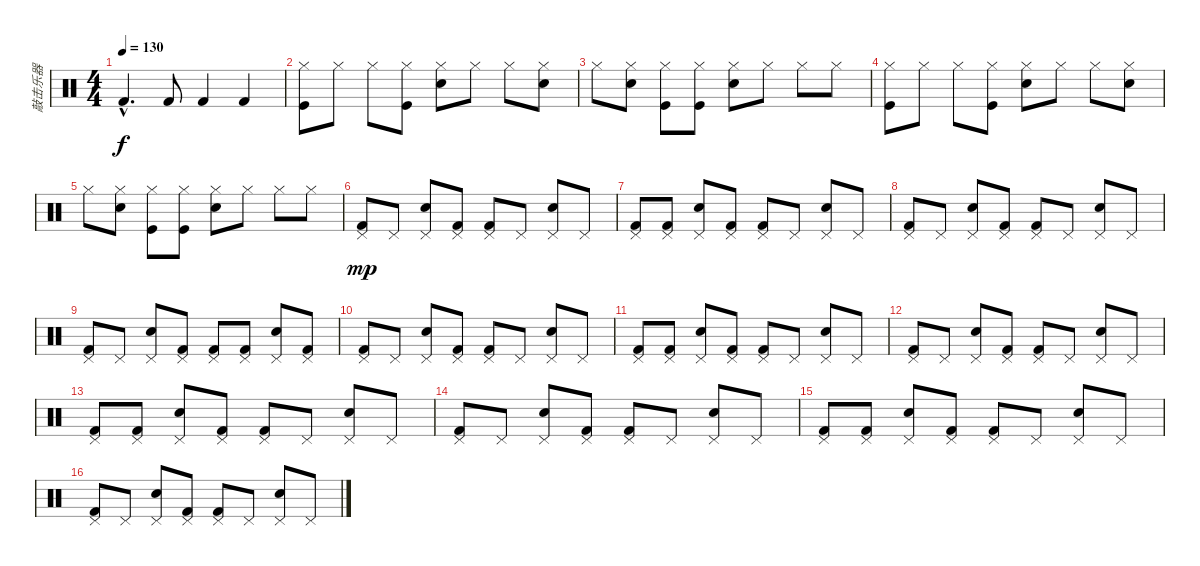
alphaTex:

\track ("敲击乐器" "敲击乐器") {instrument percussion}
\staff {score}
\articulation defaults
\ts (4 4)
\tempo 130
\clef neutral
\ks c "Kick (hit) 2"{hac}.4{d dy f} "Kick (hit) 2".8 "Kick (hit) 2".4 "Kick (hit) 2".4
|
("Hi-Hat (closed)" "Kick (hit)").8 "Hi-Hat (closed)".8 "Hi-Hat (closed)".8 ("Hi-Hat (closed)" "Kick (hit)").8 ("Hi-Hat (closed)" "Electric Snare (hit)").8 "Hi-Hat (closed)".8 "Hi-Hat (closed)".8 ("Hi-Hat (closed)" "Electric Snare (hit)").8 |
"Hi-Hat (closed)".8 ("Hi-Hat (closed)" "Electric Snare (hit)").8 ("Hi-Hat (closed)" "Kick (hit)").8 ("Hi-Hat (closed)" "Kick (hit)").8 ("Hi-Hat (closed)" "Electric Snare (hit)").8 "Hi-Hat (closed)".8 "Hi-Hat (closed)".8 "Hi-Hat (closed)".8 |
("Hi-Hat (closed)" "Kick (hit)").8 "Hi-Hat (closed)".8 "Hi-Hat (closed)".8 ("Hi-Hat (closed)" "Kick (hit)").8 ("Hi-Hat (closed)" "Electric Snare (hit)").8 "Hi-Hat (closed)".8 "Hi-Hat (closed)".8 ("Hi-Hat (closed)" "Electric Snare (hit)").8 |
"Hi-Hat (closed)".8 ("Hi-Hat (closed)" "Electric Snare (hit)").8 ("Hi-Hat (closed)" "Kick (hit)").8 ("Hi-Hat (closed)" "Kick (hit)").8 ("Hi-Hat (closed)" "Electric Snare (hit)").8 "Hi-Hat (closed)".8 "Hi-Hat (closed)".8 "Hi-Hat (closed)".8 |
("Pedal Hi-Hat (hit)" "Kick (hit) 2").8{dy mp} "Pedal Hi-Hat (hit)".8 ("Pedal Hi-Hat (hit)" "Electric Snare (hit)").8 ("Pedal Hi-Hat (hit)" "Kick (hit) 2").8 ("Pedal Hi-Hat (hit)" "Kick (hit) 2").8 "Pedal Hi-Hat (hit)".8 ("Pedal Hi-Hat (hit)" "Electric Snare (hit)").8 "Pedal Hi-Hat (hit)".8 |
("Pedal Hi-Hat (hit)" "Kick (hit) 2").8 ("Pedal Hi-Hat (hit)" "Kick (hit) 2").8 ("Pedal Hi-Hat (hit)" "Electric Snare (hit)").8 ("Pedal Hi-Hat (hit)" "Kick (hit) 2").8 ("Pedal Hi-Hat (hit)" "Kick (hit) 2").8 "Pedal Hi-Hat (hit)".8 ("Pedal Hi-Hat (hit)" "Electric Snare (hit)").8 "Pedal Hi-Hat (hit)".8 |
("Pedal Hi-Hat (hit)" "Kick (hit) 2").8 "Pedal Hi-Hat (hit)".8 ("Pedal Hi-Hat (hit)" "Electric Snare (hit)").8 ("Pedal Hi-Hat (hit)" "Kick (hit) 2").8 ("Pedal Hi-Hat (hit)" "Kick (hit) 2").8 "Pedal Hi-Hat (hit)".8 ("Pedal Hi-Hat (hit)" "Electric Snare (hit)").8 "Pedal Hi-Hat (hit)".8 |
("Pedal Hi-Hat (hit)" "Kick (hit) 2").8 "Pedal Hi-Hat (hit)".8 ("Pedal Hi-Hat (hit)" "Electric Snare (hit)").8 ("Pedal Hi-Hat (hit)" "Kick (hit) 2").8 ("Pedal Hi-Hat (hit)" "Kick (hit) 2").8 ("Pedal Hi-Hat (hit)" "Kick (hit) 2").8 ("Pedal Hi-Hat (hit)" "Electric Snare (hit)").8 ("Pedal Hi-Hat (hit)" "Kick (hit) 2").8 |
("Pedal Hi-Hat (hit)" "Kick (hit) 2").8 "Pedal Hi-Hat (hit)".8 ("Pedal Hi-Hat (hit)" "Electric Snare (hit)").8 ("Pedal Hi-Hat (hit)" "Kick (hit) 2").8 ("Pedal Hi-Hat (hit)" "Kick (hit) 2").8 "Pedal Hi-Hat (hit)".8 ("Pedal Hi-Hat (hit)" "Electric Snare (hit)").8 "Pedal Hi-Hat (hit)".8 |
("Pedal Hi-Hat (hit)" "Kick (hit) 2").8 ("Pedal Hi-Hat (hit)" "Kick (hit) 2").8 ("Pedal Hi-Hat (hit)" "Electric Snare (hit)").8 ("Pedal Hi-Hat (hit)" "Kick (hit) 2").8 ("Pedal Hi-Hat (hit)" "Kick (hit) 2").8 "Pedal Hi-Hat (hit)".8 ("Pedal Hi-Hat (hit)" "Electric Snare (hit)").8 "Pedal Hi-Hat (hit)".8 |
("Pedal Hi-Hat (hit)" "Kick (hit) 2").8 "Pedal Hi-Hat (hit)".8 ("Pedal Hi-Hat (hit)" "Electric Snare (hit)").8 ("Pedal Hi-Hat (hit)" "Kick (hit) 2").8 ("Pedal Hi-Hat (hit)" "Kick (hit) 2").8 "Pedal Hi-Hat (hit)".8 ("Pedal Hi-Hat (hit)" "Electric Snare (hit)").8 "Pedal Hi-Hat (hit)".8 |
("Pedal Hi-Hat (hit)" "Kick (hit) 2").8 ("Pedal Hi-Hat (hit)" "Kick (hit) 2").8 ("Pedal Hi-Hat (hit)" "Electric Snare (hit)").8 ("Pedal Hi-Hat (hit)" "Kick (hit) 2").8 ("Pedal Hi-Hat (hit)" "Kick (hit) 2").8 "Pedal Hi-Hat (hit)".8 ("Pedal Hi-Hat (hit)" "Electric Snare (hit)").8 "Pedal Hi-Hat (hit)".8 |
("Pedal Hi-Hat (hit)" "Kick (hit) 2").8 "Pedal Hi-Hat (hit)".8 ("Pedal Hi-Hat (hit)" "Electric Snare (hit)").8 ("Pedal Hi-Hat (hit)" "Kick (hit) 2").8 ("Pedal Hi-Hat (hit)" "Kick (hit) 2").8 "Pedal Hi-Hat (hit)".8 ("Pedal Hi-Hat (hit)" "Electric Snare (hit)").8 "Pedal Hi-Hat (hit)".8 |
("Pedal Hi-Hat (hit)" "Kick (hit) 2").8 ("Pedal Hi-Hat (hit)" "Kick (hit) 2").8 ("Pedal Hi-Hat (hit)" "Electric Snare (hit)").8 ("Pedal Hi-Hat (hit)" "Kick (hit) 2").8 ("Pedal Hi-Hat (hit)" "Kick (hit) 2").8 "Pedal Hi-Hat (hit)".8 ("Pedal Hi-Hat (hit)" "Electric Snare (hit)").8 "Pedal Hi-Hat (hit)".8 |
("Pedal Hi-Hat (hit)" "Kick (hit) 2").8 "Pedal Hi-Hat (hit)".8 ("Pedal Hi-Hat (hit)" "Electric Snare (hit)").8 ("Pedal Hi-Hat (hit)" "Kick (hit) 2").8 ("Pedal Hi-Hat (hit)" "Kick (hit) 2").8 "Pedal Hi-Hat (hit)".8 ("Pedal Hi-Hat (hit)" "Electric Snare (hit)").8 "Pedal Hi-Hat (hit)".8
